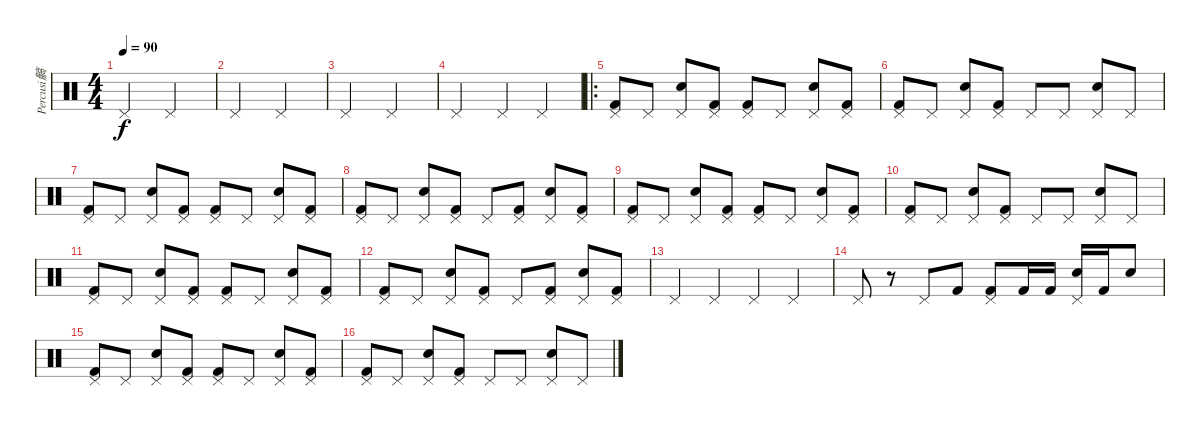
\track ("Percusi髇" "Percusi髇") {instrument percussion}
\staff {score}
\articulation defaults
\ts (4 4)
\tempo 90
\clef neutral
\ks c "Pedal Hi-Hat (hit)".2{dy f} "Pedal Hi-Hat (hit)".2
|
"Pedal Hi-Hat (hit)".2 "Pedal Hi-Hat (hit)".2 |
"Pedal Hi-Hat (hit)".2 "Pedal Hi-Hat (hit)".2 |
"Pedal Hi-Hat (hit)".2 "Pedal Hi-Hat (hit)".4 "Pedal Hi-Hat (hit)".4 |
\ro
("Pedal Hi-Hat (hit)" "Kick (hit) 2").8 "Pedal Hi-Hat (hit)".8 ("Pedal Hi-Hat (hit)" "Snare (hit) 2").8 ("Pedal Hi-Hat (hit)" "Kick (hit) 2").8 ("Pedal Hi-Hat (hit)" "Kick (hit) 2").8 "Pedal Hi-Hat (hit)".8 ("Pedal Hi-Hat (hit)" "Snare (hit) 2").8 ("Pedal Hi-Hat (hit)" "Kick (hit) 2").8 |
("Pedal Hi-Hat (hit)" "Kick (hit) 2").8 "Pedal Hi-Hat (hit)".8 ("Pedal Hi-Hat (hit)" "Snare (hit) 2").8 ("Pedal Hi-Hat (hit)" "Kick (hit) 2").8 "Pedal Hi-Hat (hit)".8 "Pedal Hi-Hat (hit)".8 ("Pedal Hi-Hat (hit)" "Snare (hit) 2").8 "Pedal Hi-Hat (hit)".8 |
("Pedal Hi-Hat (hit)" "Kick (hit) 2").8 "Pedal Hi-Hat (hit)".8 ("Pedal Hi-Hat (hit)" "Snare (hit) 2").8 ("Pedal Hi-Hat (hit)" "Kick (hit) 2").8 ("Pedal Hi-Hat (hit)" "Kick (hit) 2").8 "Pedal Hi-Hat (hit)".8 ("Pedal Hi-Hat (hit)" "Snare (hit) 2").8 ("Pedal Hi-Hat (hit)" "Kick (hit) 2").8 |
("Pedal Hi-Hat (hit)" "Kick (hit) 2").8 "Pedal Hi-Hat (hit)".8 ("Pedal Hi-Hat (hit)" "Snare (hit) 2").8 ("Pedal Hi-Hat (hit)" "Kick (hit) 2").8 "Pedal Hi-Hat (hit)".8 ("Pedal Hi-Hat (hit)" "Kick (hit) 2").8 ("Pedal Hi-Hat (hit)" "Snare (hit) 2").8 ("Pedal Hi-Hat (hit)" "Kick (hit) 2").8 |
("Pedal Hi-Hat (hit)" "Kick (hit) 2").8 "Pedal Hi-Hat (hit)".8 ("Pedal Hi-Hat (hit)" "Snare (hit) 2").8 ("Pedal Hi-Hat (hit)" "Kick (hit) 2").8 ("Pedal Hi-Hat (hit)" "Kick (hit) 2").8 "Pedal Hi-Hat (hit)".8 ("Pedal Hi-Hat (hit)" "Snare (hit) 2").8 ("Pedal Hi-Hat (hit)" "Kick (hit) 2").8 |
("Pedal Hi-Hat (hit)" "Kick (hit) 2").8 "Pedal Hi-Hat (hit)".8 ("Pedal Hi-Hat (hit)" "Snare (hit) 2").8 ("Pedal Hi-Hat (hit)" "Kick (hit) 2").8 "Pedal Hi-Hat (hit)".8 "Pedal Hi-Hat (hit)".8 ("Pedal Hi-Hat (hit)" "Snare (hit) 2").8 "Pedal Hi-Hat (hit)".8 |
("Pedal Hi-Hat (hit)" "Kick (hit) 2").8 "Pedal Hi-Hat (hit)".8 ("Pedal Hi-Hat (hit)" "Snare (hit) 2").8 ("Pedal Hi-Hat (hit)" "Kick (hit) 2").8 ("Pedal Hi-Hat (hit)" "Kick (hit) 2").8 "Pedal Hi-Hat (hit)".8 ("Pedal Hi-Hat (hit)" "Snare (hit) 2").8 ("Pedal Hi-Hat (hit)" "Kick (hit) 2").8 |
("Pedal Hi-Hat (hit)" "Kick (hit) 2").8 "Pedal Hi-Hat (hit)".8 ("Pedal Hi-Hat (hit)" "Snare (hit) 2").8 ("Pedal Hi-Hat (hit)" "Kick (hit) 2").8 "Pedal Hi-Hat (hit)".8 ("Pedal Hi-Hat (hit)" "Kick (hit) 2").8 ("Pedal Hi-Hat (hit)" "Snare (hit) 2").8 ("Pedal Hi-Hat (hit)" "Kick (hit) 2").8 |
"Pedal Hi-Hat (hit)".4 "Pedal Hi-Hat (hit)".4 "Pedal Hi-Hat (hit)".4 "Pedal Hi-Hat (hit)".4 |
"Pedal Hi-Hat (hit)".8 r.8 "Pedal Hi-Hat (hit)".8 "Kick (hit) 2".8 ("Pedal Hi-Hat (hit)" "Kick (hit) 2").8 "Kick (hit) 2".16 "Kick (hit) 2".16 ("Pedal Hi-Hat (hit)" "Snare (hit) 2").16 "Kick (hit) 2".16 "Snare (hit) 2".8 |
("Pedal Hi-Hat (hit)" "Kick (hit) 2").8 "Pedal Hi-Hat (hit)".8 ("Pedal Hi-Hat (hit)" "Snare (hit) 2").8 ("Pedal Hi-Hat (hit)" "Kick (hit) 2").8 ("Pedal Hi-Hat (hit)" "Kick (hit) 2").8 "Pedal Hi-Hat (hit)".8 ("Pedal Hi-Hat (hit)" "Snare (hit) 2").8 ("Pedal Hi-Hat (hit)" "Kick (hit) 2").8 |
("Pedal Hi-Hat (hit)" "Kick (hit) 2").8 "Pedal Hi-Hat (hit)".8 ("Pedal Hi-Hat (hit)" "Snare (hit) 2").8 ("Pedal Hi-Hat (hit)" "Kick (hit) 2").8 "Pedal Hi-Hat (hit)".8 "Pedal Hi-Hat (hit)".8 ("Pedal Hi-Hat (hit)" "Snare (hit) 2").8 "Pedal Hi-Hat (hit)".8
